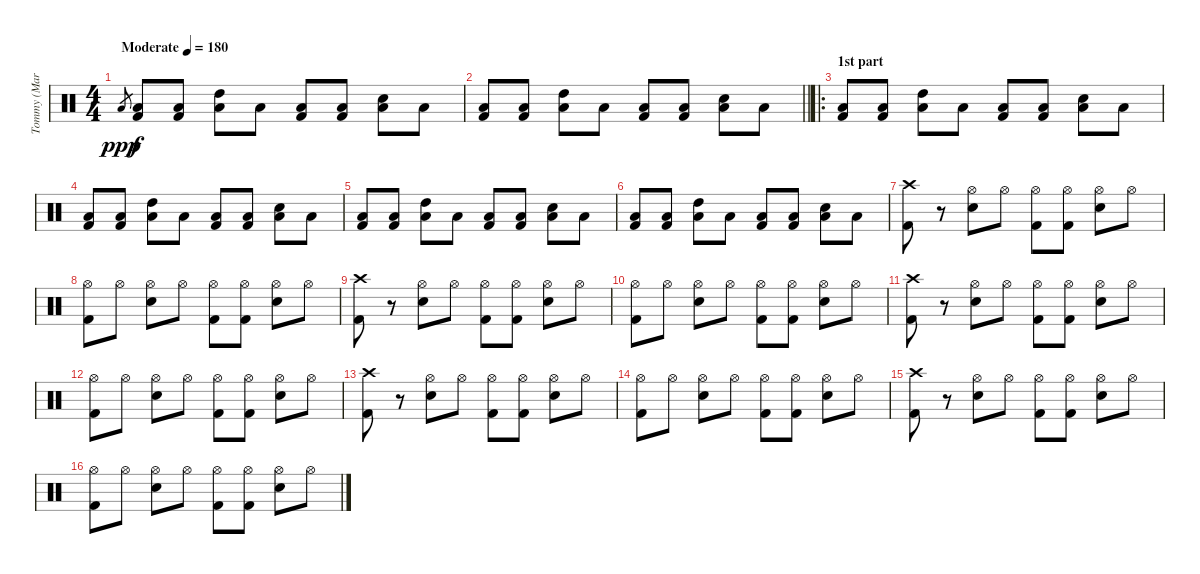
\track ("Tommy (Marky)" "Tommy (Mar") {instrument percussion}
\staff {score}
\articulation defaults
\ts (4 4)
\tempo (180 "Moderate")
\clef neutral
\ks c "Low Floor Tom (hit)".8{gr dy ppp}
("Low Floor Tom (hit)" "Kick (hit) 2").8{dy f} ("Low Floor Tom (hit)" "Kick (hit) 2").8 ("Low Floor Tom (hit)" "High Tom (hit)").8 "Low Floor Tom (hit)".8 ("Low Floor Tom (hit)" "Kick (hit) 2").8 ("Low Floor Tom (hit)" "Kick (hit) 2").8 ("Low Floor Tom (hit)" "Snare (hit) 2").8 "Low Floor Tom (hit)".8 |
\barLineRight lightlight
("Low Floor Tom (hit)" "Kick (hit) 2").8 ("Low Floor Tom (hit)" "Kick (hit) 2").8 ("Low Floor Tom (hit)" "High Tom (hit)").8 "Low Floor Tom (hit)".8 ("Low Floor Tom (hit)" "Kick (hit) 2").8 ("Low Floor Tom (hit)" "Kick (hit) 2").8 ("Low Floor Tom (hit)" "Snare (hit) 2").8 "Low Floor Tom (hit)".8 |
\ro
\section ("" "1st part")
("Low Floor Tom (hit)" "Kick (hit) 2").8 ("Low Floor Tom (hit)" "Kick (hit) 2").8 ("Low Floor Tom (hit)" "High Tom (hit)").8 "Low Floor Tom (hit)".8 ("Low Floor Tom (hit)" "Kick (hit) 2").8 ("Low Floor Tom (hit)" "Kick (hit) 2").8 ("Low Floor Tom (hit)" "Snare (hit) 2").8 "Low Floor Tom (hit)".8 |
("Low Floor Tom (hit)" "Kick (hit) 2").8 ("Low Floor Tom (hit)" "Kick (hit) 2").8 ("Low Floor Tom (hit)" "High Tom (hit)").8 "Low Floor Tom (hit)".8 ("Low Floor Tom (hit)" "Kick (hit) 2").8 ("Low Floor Tom (hit)" "Kick (hit) 2").8 ("Low Floor Tom (hit)" "Snare (hit) 2").8 "Low Floor Tom (hit)".8 |
("Low Floor Tom (hit)" "Kick (hit) 2").8 ("Low Floor Tom (hit)" "Kick (hit) 2").8 ("Low Floor Tom (hit)" "High Tom (hit)").8 "Low Floor Tom (hit)".8 ("Low Floor Tom (hit)" "Kick (hit) 2").8 ("Low Floor Tom (hit)" "Kick (hit) 2").8 ("Low Floor Tom (hit)" "Snare (hit) 2").8 "Low Floor Tom (hit)".8 |
("Low Floor Tom (hit)" "Kick (hit) 2").8 ("Low Floor Tom (hit)" "Kick (hit) 2").8 ("Low Floor Tom (hit)" "High Tom (hit)").8 "Low Floor Tom (hit)".8 ("Low Floor Tom (hit)" "Kick (hit) 2").8 ("Low Floor Tom (hit)" "Kick (hit) 2").8 ("Low Floor Tom (hit)" "Snare (hit) 2").8 "Low Floor Tom (hit)".8 |
("Crash high (hit)" "Kick (hit) 2").8 r.8 ("Hi-Hat (open)" "Snare (hit) 2").8 "Hi-Hat (open)".8 ("Hi-Hat (open)" "Kick (hit) 2").8 ("Hi-Hat (open)" "Kick (hit) 2").8 ("Hi-Hat (open)" "Snare (hit) 2").8 "Hi-Hat (open)".8 |
("Hi-Hat (open)" "Kick (hit) 2").8 "Hi-Hat (open)".8 ("Hi-Hat (open)" "Snare (hit) 2").8 "Hi-Hat (open)".8 ("Hi-Hat (open)" "Kick (hit) 2").8 ("Hi-Hat (open)" "Kick (hit) 2").8 ("Hi-Hat (open)" "Snare (hit) 2").8 "Hi-Hat (open)".8 |
("Crash high (hit)" "Kick (hit) 2").8 r.8 ("Hi-Hat (open)" "Snare (hit) 2").8 "Hi-Hat (open)".8 ("Hi-Hat (open)" "Kick (hit) 2").8 ("Hi-Hat (open)" "Kick (hit) 2").8 ("Hi-Hat (open)" "Snare (hit) 2").8 "Hi-Hat (open)".8 |
("Hi-Hat (open)" "Kick (hit) 2").8 "Hi-Hat (open)".8 ("Hi-Hat (open)" "Snare (hit) 2").8 "Hi-Hat (open)".8 ("Hi-Hat (open)" "Kick (hit) 2").8 ("Hi-Hat (open)" "Kick (hit) 2").8 ("Hi-Hat (open)" "Snare (hit) 2").8 "Hi-Hat (open)".8 |
("Crash high (hit)" "Kick (hit) 2").8 r.8 ("Hi-Hat (open)" "Snare (hit) 2").8 "Hi-Hat (open)".8 ("Hi-Hat (open)" "Kick (hit) 2").8 ("Hi-Hat (open)" "Kick (hit) 2").8 ("Hi-Hat (open)" "Snare (hit) 2").8 "Hi-Hat (open)".8 |
("Hi-Hat (open)" "Kick (hit) 2").8 "Hi-Hat (open)".8 ("Hi-Hat (open)" "Snare (hit) 2").8 "Hi-Hat (open)".8 ("Hi-Hat (open)" "Kick (hit) 2").8 ("Hi-Hat (open)" "Kick (hit) 2").8 ("Hi-Hat (open)" "Snare (hit) 2").8 "Hi-Hat (open)".8 |
("Crash high (hit)" "Kick (hit) 2").8 r.8 ("Hi-Hat (open)" "Snare (hit) 2").8 "Hi-Hat (open)".8 ("Hi-Hat (open)" "Kick (hit) 2").8 ("Hi-Hat (open)" "Kick (hit) 2").8 ("Hi-Hat (open)" "Snare (hit) 2").8 "Hi-Hat (open)".8 |
("Hi-Hat (open)" "Kick (hit) 2").8 "Hi-Hat (open)".8 ("Hi-Hat (open)" "Snare (hit) 2").8 "Hi-Hat (open)".8 ("Hi-Hat (open)" "Kick (hit) 2").8 ("Hi-Hat (open)" "Kick (hit) 2").8 ("Hi-Hat (open)" "Snare (hit) 2").8 "Hi-Hat (open)".8 |
("Crash high (hit)" "Kick (hit) 2").8 r.8 ("Hi-Hat (open)" "Snare (hit) 2").8 "Hi-Hat (open)".8 ("Hi-Hat (open)" "Kick (hit) 2").8 ("Hi-Hat (open)" "Kick (hit) 2").8 ("Hi-Hat (open)" "Snare (hit) 2").8 "Hi-Hat (open)".8 |
("Hi-Hat (open)" "Kick (hit) 2").8 "Hi-Hat (open)".8 ("Hi-Hat (open)" "Snare (hit) 2").8 "Hi-Hat (open)".8 ("Hi-Hat (open)" "Kick (hit) 2").8 ("Hi-Hat (open)" "Kick (hit) 2").8 ("Hi-Hat (open)" "Snare (hit) 2").8 "Hi-Hat (open)".8
